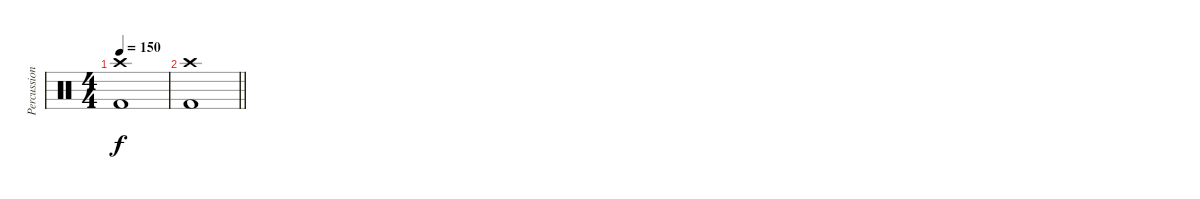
\track ("Percussion" "Percussion") {instrument percussion}
\staff {score}
\articulation defaults
\ts (4 4)
\tempo 150
\clef neutral
\ks c
("Crash high (hit)" "Kick (hit) 2").1{dy f} |
\barLineRight lightlight
("Crash high (hit)" "Kick (hit) 2").1
